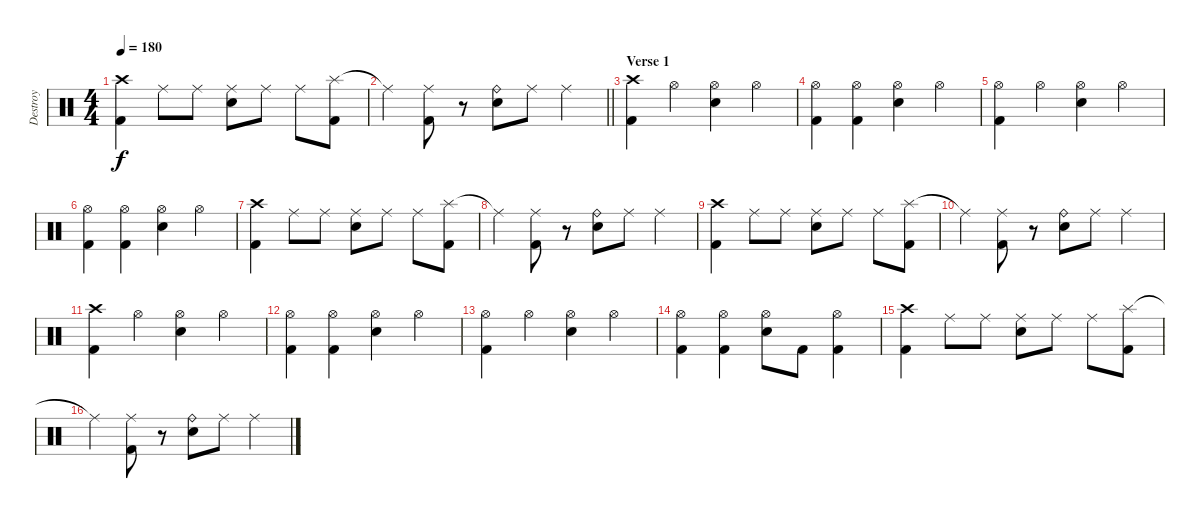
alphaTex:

\track ("Destroy" "Destroy") {instrument percussion}
\staff {score}
\articulation defaults
\ts (4 4)
\tempo 180
\clef neutral
\ks c
("Crash high (hit)" "Kick (hit) 2").4{dy f} "Ride (middle)".8 "Ride (middle)".8 ("Ride (middle)" "Snare (hit) 2").8 "Ride (middle)".8 "Ride (middle)".8 ("Splash (hit)" "Kick (hit) 2").8 |
\barLineRight lightlight "Ride (middle)"{t}.4
("Ride (middle)" "Kick (hit) 2").8 r.8 ("Ride (bell)" "Snare (hit) 2").8 "Ride (middle)".8 "Ride (middle)".4 |
\section ("" "Verse 1")
("Crash high (hit)" "Kick (hit) 2").4 "Hi-Hat (open)".4 ("Hi-Hat (open)" "Snare (hit) 2").4 "Hi-Hat (open)".4 |
("Hi-Hat (open)" "Kick (hit) 2").4 ("Hi-Hat (open)" "Kick (hit) 2").4 ("Hi-Hat (open)" "Snare (hit) 2").4 "Hi-Hat (open)".4 |
("Hi-Hat (open)" "Kick (hit) 2").4 "Hi-Hat (open)".4 ("Hi-Hat (open)" "Snare (hit) 2").4 "Hi-Hat (open)".4 |
("Hi-Hat (open)" "Kick (hit) 2").4 ("Hi-Hat (open)" "Kick (hit) 2").4 ("Hi-Hat (open)" "Snare (hit) 2").4 "Hi-Hat (open)".4 |
("Crash high (hit)" "Kick (hit) 2").4 "Ride (middle)".8 "Ride (middle)".8 ("Ride (middle)" "Snare (hit) 2").8 "Ride (middle)".8 "Ride (middle)".8 ("Splash (hit)" "Kick (hit) 2").8 |
"Ride (middle)"{t}.4 ("Ride (middle)" "Kick (hit) 2").8 r.8 ("Ride (bell)" "Snare (hit) 2").8 "Ride (middle)".8 "Ride (middle)".4 |
("Crash high (hit)" "Kick (hit) 2").4 "Ride (middle)".8 "Ride (middle)".8 ("Ride (middle)" "Snare (hit) 2").8 "Ride (middle)".8 "Ride (middle)".8 ("Splash (hit)" "Kick (hit) 2").8 |
"Ride (middle)"{t}.4 ("Ride (middle)" "Kick (hit) 2").8 r.8 ("Ride (bell)" "Snare (hit) 2").8 "Ride (middle)".8 "Ride (middle)".4 |
("Crash high (hit)" "Kick (hit) 2").4 "Hi-Hat (open)".4 ("Hi-Hat (open)" "Snare (hit) 2").4 "Hi-Hat (open)".4 |
("Hi-Hat (open)" "Kick (hit) 2").4 ("Hi-Hat (open)" "Kick (hit) 2").4 ("Hi-Hat (open)" "Snare (hit) 2").4 "Hi-Hat (open)".4 |
("Hi-Hat (open)" "Kick (hit) 2").4 "Hi-Hat (open)".4 ("Hi-Hat (open)" "Snare (hit) 2").4 "Hi-Hat (open)".4 |
("Hi-Hat (open)" "Kick (hit) 2").4 ("Hi-Hat (open)" "Kick (hit) 2").4 ("Hi-Hat (open)" "Snare (hit) 2").8 "Kick (hit) 2".8 ("Hi-Hat (open)" "Kick (hit) 2").4 |
("Crash high (hit)" "Kick (hit) 2").4 "Ride (middle)".8 "Ride (middle)".8 ("Ride (middle)" "Snare (hit) 2").8 "Ride (middle)".8 "Ride (middle)".8 ("Splash (hit)" "Kick (hit) 2").8 |
"Ride (middle)"{t}.4 ("Ride (middle)" "Kick (hit) 2").8 r.8 ("Ride (bell)" "Snare (hit) 2").8 "Ride (middle)".8 "Ride (middle)".4
